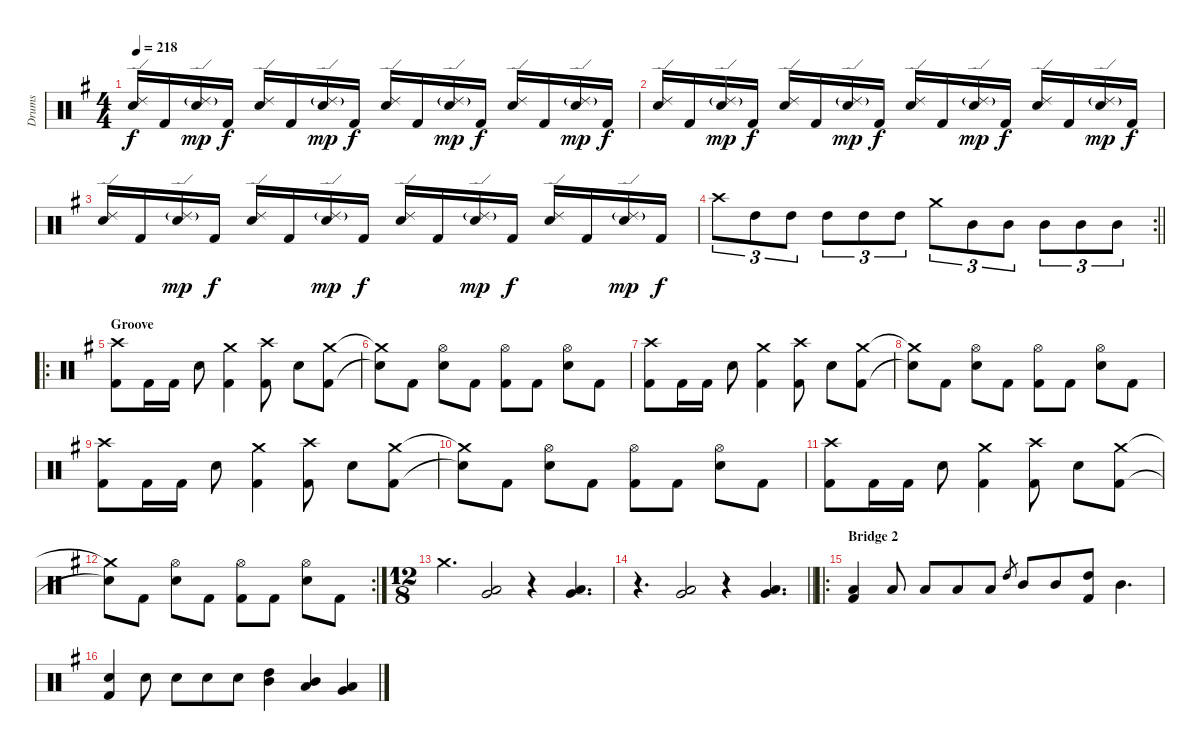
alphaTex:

\track ("Drums" "Drums") {solo instrument percussion}
\staff {score}
\articulation defaults
\ts (4 4)
\tempo 218
\clef neutral
\ks eminor
("Ride (edge) 2" "Electric Snare (hit)").16{dy f} "Kick (hit) 2".16 ("Ride (edge) 2"{g} "Electric Snare (hit)").16{dy mp} "Kick (hit) 2".16{dy f} ("Ride (edge) 2" "Electric Snare (hit)").16 "Kick (hit) 2".16 ("Ride (edge) 2"{g} "Electric Snare (hit)").16{dy mp} "Kick (hit) 2".16{dy f} ("Ride (edge) 2" "Electric Snare (hit)").16 "Kick (hit) 2".16 ("Ride (edge) 2"{g} "Electric Snare (hit)").16{dy mp} "Kick (hit) 2".16{dy f} ("Ride (edge) 2" "Electric Snare (hit)").16 "Kick (hit) 2".16 ("Ride (edge) 2"{g} "Electric Snare (hit)").16{dy mp} "Kick (hit) 2".16{dy f} |
("Ride (edge) 2" "Electric Snare (hit)").16 "Kick (hit) 2".16 ("Ride (edge) 2"{g} "Electric Snare (hit)").16{dy mp} "Kick (hit) 2".16{dy f} ("Ride (edge) 2" "Electric Snare (hit)").16 "Kick (hit) 2".16 ("Ride (edge) 2"{g} "Electric Snare (hit)").16{dy mp} "Kick (hit) 2".16{dy f} ("Ride (edge) 2" "Electric Snare (hit)").16 "Kick (hit) 2".16 ("Ride (edge) 2"{g} "Electric Snare (hit)").16{dy mp} "Kick (hit) 2".16{dy f} ("Ride (edge) 2" "Electric Snare (hit)").16 "Kick (hit) 2".16 ("Ride (edge) 2"{g} "Electric Snare (hit)").16{dy mp} "Kick (hit) 2".16{dy f} |
("Ride (edge) 2" "Electric Snare (hit)").16 "Kick (hit) 2".16 ("Ride (edge) 2"{g} "Electric Snare (hit)").16{dy mp} "Kick (hit) 2".16{dy f} ("Ride (edge) 2" "Electric Snare (hit)").16 "Kick (hit) 2".16 ("Ride (edge) 2"{g} "Electric Snare (hit)").16{dy mp} "Kick (hit) 2".16{dy f} ("Ride (edge) 2" "Electric Snare (hit)").16 "Kick (hit) 2".16 ("Ride (edge) 2"{g} "Electric Snare (hit)").16{dy mp} "Kick (hit) 2".16{dy f} ("Ride (edge) 2" "Electric Snare (hit)").16 "Kick (hit) 2".16 ("Ride (edge) 2"{g} "Electric Snare (hit)").16{dy mp} "Kick (hit) 2".16{dy f} |
\rc 2
\barLineRight lightlight "Crash high (hit)".8{tu (3 2)} "High Tom (hit)".8{tu (3 2)} "High Tom (hit)".8{tu (3 2)} "High Tom (hit)".8{tu (3 2)} "High Tom (hit)".8{tu (3 2)} "High Tom (hit)".8{tu (3 2)} "Crash medium (hit)".8{tu (3 2)} "Mid Tom (hit)".8{tu (3 2)} "Mid Tom (hit)".8{tu (3 2)} "Mid Tom (hit)".8{tu (3 2)} "Mid Tom (hit)".8{tu (3 2)} "Mid Tom (hit)".8{tu (3 2)}
|
\ro
\section ("" "Groove")
("Crash high (hit)" "Kick (hit) 2").8 "Kick (hit) 2".16 "Kick (hit) 2".16 "Electric Snare (hit)".8 ("Crash medium (hit)" "Kick (hit) 2").4 ("Crash high (hit)" "Kick (hit) 2").8 "Electric Snare (hit)".8 ("Crash medium (hit)" "Kick (hit) 2").8 |
("Crash medium (hit)"{t} "Snare (hit)"{t}).8 "Kick (hit) 2".8 ("Hi-Hat (open)" "Electric Snare (hit)").8 "Kick (hit) 2".8 ("Hi-Hat (open)" "Kick (hit) 2").8 "Kick (hit) 2".8 ("Hi-Hat (open)" "Electric Snare (hit)").8 "Kick (hit) 2".8 |
("Crash high (hit)" "Kick (hit) 2").8 "Kick (hit) 2".16 "Kick (hit) 2".16 "Electric Snare (hit)".8 ("Crash medium (hit)" "Kick (hit) 2").4 ("Crash high (hit)" "Kick (hit) 2").8 "Electric Snare (hit)".8 ("Crash medium (hit)" "Kick (hit) 2").8 |
("Crash medium (hit)"{t} "Snare (hit)"{t}).8 "Kick (hit) 2".8 ("Hi-Hat (open)" "Electric Snare (hit)").8 "Kick (hit) 2".8 ("Hi-Hat (open)" "Kick (hit) 2").8 "Kick (hit) 2".8 ("Hi-Hat (open)" "Electric Snare (hit)").8 "Kick (hit) 2".8 |
("Crash high (hit)" "Kick (hit) 2").8 "Kick (hit) 2".16 "Kick (hit) 2".16 "Electric Snare (hit)".8 ("Crash medium (hit)" "Kick (hit) 2").4 ("Crash high (hit)" "Kick (hit) 2").8 "Electric Snare (hit)".8 ("Crash medium (hit)" "Kick (hit) 2").8 |
("Crash medium (hit)"{t} "Snare (hit)"{t}).8 "Kick (hit) 2".8 ("Hi-Hat (open)" "Electric Snare (hit)").8 "Kick (hit) 2".8 ("Hi-Hat (open)" "Kick (hit) 2").8 "Kick (hit) 2".8 ("Hi-Hat (open)" "Electric Snare (hit)").8 "Kick (hit) 2".8 |
("Crash high (hit)" "Kick (hit) 2").8 "Kick (hit) 2".16 "Kick (hit) 2".16 "Electric Snare (hit)".8 ("Crash medium (hit)" "Kick (hit) 2").4 ("Crash high (hit)" "Kick (hit) 2").8 "Electric Snare (hit)".8 ("Crash medium (hit)" "Kick (hit) 2").8 |
\rc 2
("Crash medium (hit)"{t} "Snare (hit)"{t}).8 "Kick (hit) 2".8 ("Hi-Hat (open)" "Electric Snare (hit)").8 "Kick (hit) 2".8 ("Hi-Hat (open)" "Kick (hit) 2").8 "Kick (hit) 2".8 ("Hi-Hat (open)" "Electric Snare (hit)").8 "Kick (hit) 2".8 |
\ts (12 8)
"Crash medium (hit)".4{d} ("Low Tom (hit)" "Very Low Tom (hit)").2 r.4 ("Low Tom (hit)" "Very Low Tom (hit)").4{d} |
\barLineRight lightlight
r.4{d} ("Low Tom (hit)" "Very Low Tom (hit)").2 r.4 ("Low Tom (hit)" "Very Low Tom (hit)").4{d} |
\ro
\section ("" "Bridge 2")
("Low Tom (hit)" "Kick (hit) 2").4 "Low Tom (hit)".8 "Low Tom (hit)".8 "Low Tom (hit)".8 "Low Tom (hit)".8 "High Tom (hit)".8{gr} "Mid Tom (hit)".8 "Mid Tom (hit)".8 ("High Tom (hit)" "Kick (hit) 2").8 "Mid Tom (hit)".4{d} |
("Electric Snare (hit)" "Kick (hit) 2").4 "Electric Snare (hit)".8 "Electric Snare (hit)".8 "Electric Snare (hit)".8 "Electric Snare (hit)".8 ("High Tom (hit)" "Mid Tom (hit)").4 ("Mid Tom (hit)" "Low Tom (hit)").4 ("Low Tom (hit)" "Very Low Tom (hit)").4
